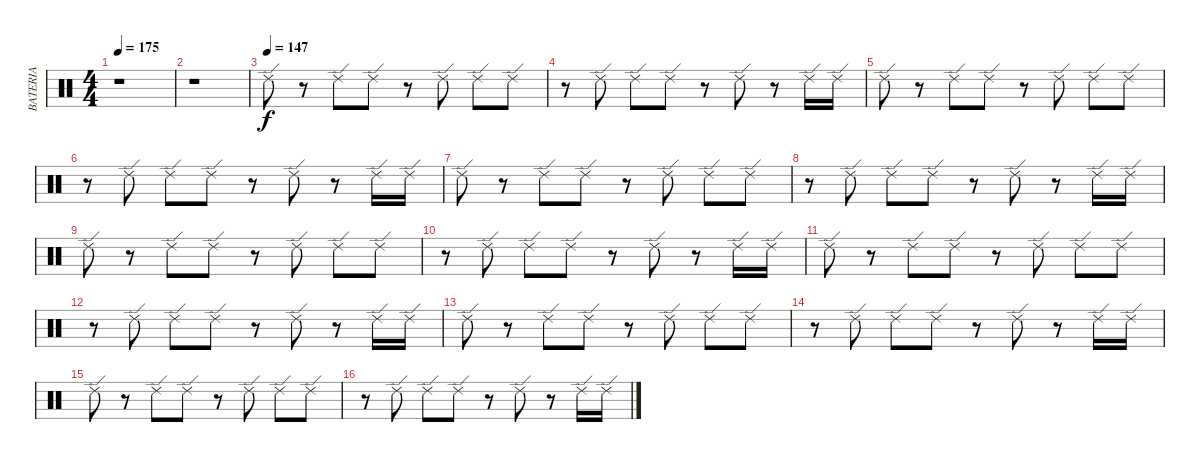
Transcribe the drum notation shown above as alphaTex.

\track ("BATERIA" "BATERIA") {instrument percussion}
\staff {score}
\articulation defaults
\ts (4 4)
\tempo 175
\clef neutral
\ks c
r.1{dy fff} |
r.1 |
\tempo (147)
"Ride (edge) 2".8{dy f} r.8 "Ride (edge) 2".8 "Ride (edge) 2".8 r.8 "Ride (edge) 2".8 "Ride (edge) 2".8 "Ride (edge) 2".8 |
r.8 "Ride (edge) 2".8 "Ride (edge) 2".8 "Ride (edge) 2".8 r.8 "Ride (edge) 2".8 r.8 "Ride (edge) 2".16 "Ride (edge) 2".16 |
"Ride (edge) 2".8 r.8 "Ride (edge) 2".8 "Ride (edge) 2".8 r.8 "Ride (edge) 2".8 "Ride (edge) 2".8 "Ride (edge) 2".8 |
r.8 "Ride (edge) 2".8 "Ride (edge) 2".8 "Ride (edge) 2".8 r.8 "Ride (edge) 2".8 r.8 "Ride (edge) 2".16 "Ride (edge) 2".16 |
"Ride (edge) 2".8 r.8 "Ride (edge) 2".8 "Ride (edge) 2".8 r.8 "Ride (edge) 2".8 "Ride (edge) 2".8 "Ride (edge) 2".8 |
r.8 "Ride (edge) 2".8 "Ride (edge) 2".8 "Ride (edge) 2".8 r.8 "Ride (edge) 2".8 r.8 "Ride (edge) 2".16 "Ride (edge) 2".16 |
"Ride (edge) 2".8 r.8 "Ride (edge) 2".8 "Ride (edge) 2".8 r.8 "Ride (edge) 2".8 "Ride (edge) 2".8 "Ride (edge) 2".8 |
r.8 "Ride (edge) 2".8 "Ride (edge) 2".8 "Ride (edge) 2".8 r.8 "Ride (edge) 2".8 r.8 "Ride (edge) 2".16 "Ride (edge) 2".16 |
"Ride (edge) 2".8 r.8 "Ride (edge) 2".8 "Ride (edge) 2".8 r.8 "Ride (edge) 2".8 "Ride (edge) 2".8 "Ride (edge) 2".8 |
r.8 "Ride (edge) 2".8 "Ride (edge) 2".8 "Ride (edge) 2".8 r.8 "Ride (edge) 2".8 r.8 "Ride (edge) 2".16 "Ride (edge) 2".16 |
"Ride (edge) 2".8 r.8 "Ride (edge) 2".8 "Ride (edge) 2".8 r.8 "Ride (edge) 2".8 "Ride (edge) 2".8 "Ride (edge) 2".8 |
r.8 "Ride (edge) 2".8 "Ride (edge) 2".8 "Ride (edge) 2".8 r.8 "Ride (edge) 2".8 r.8 "Ride (edge) 2".16 "Ride (edge) 2".16 |
"Ride (edge) 2".8 r.8 "Ride (edge) 2".8 "Ride (edge) 2".8 r.8 "Ride (edge) 2".8 "Ride (edge) 2".8 "Ride (edge) 2".8 |
r.8 "Ride (edge) 2".8 "Ride (edge) 2".8 "Ride (edge) 2".8 r.8 "Ride (edge) 2".8 r.8 "Ride (edge) 2".16 "Ride (edge) 2".16
